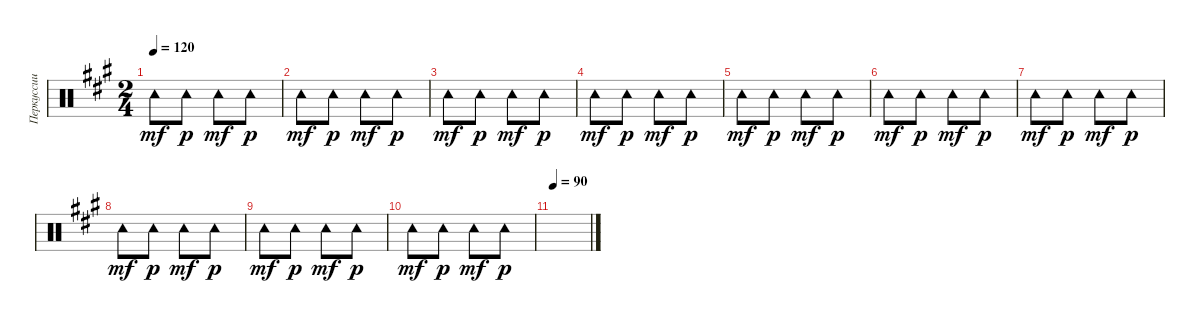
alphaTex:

\track ("Перкуссии" "Перкуссии") {instrument percussion}
\staff {score}
\articulation defaults
\ts (2 4)
\tempo 120
\clef neutral
\ks f#minor "Tambourine (hit)".8{dy mf} "Tambourine (hit)".8{dy p} "Tambourine (hit)".8{dy mf} "Tambourine (hit)".8{dy p}
|
"Tambourine (hit)".8{dy mf} "Tambourine (hit)".8{dy p} "Tambourine (hit)".8{dy mf} "Tambourine (hit)".8{dy p} |
"Tambourine (hit)".8{dy mf} "Tambourine (hit)".8{dy p} "Tambourine (hit)".8{dy mf} "Tambourine (hit)".8{dy p} |
"Tambourine (hit)".8{dy mf} "Tambourine (hit)".8{dy p} "Tambourine (hit)".8{dy mf} "Tambourine (hit)".8{dy p} |
"Tambourine (hit)".8{dy mf} "Tambourine (hit)".8{dy p} "Tambourine (hit)".8{dy mf} "Tambourine (hit)".8{dy p} |
"Tambourine (hit)".8{dy mf} "Tambourine (hit)".8{dy p} "Tambourine (hit)".8{dy mf} "Tambourine (hit)".8{dy p} |
"Tambourine (hit)".8{dy mf} "Tambourine (hit)".8{dy p} "Tambourine (hit)".8{dy mf} "Tambourine (hit)".8{dy p} |
"Tambourine (hit)".8{dy mf} "Tambourine (hit)".8{dy p} "Tambourine (hit)".8{dy mf} "Tambourine (hit)".8{dy p} |
"Tambourine (hit)".8{dy mf} "Tambourine (hit)".8{dy p} "Tambourine (hit)".8{dy mf} "Tambourine (hit)".8{dy p} |
"Tambourine (hit)".8{dy mf} "Tambourine (hit)".8{dy p} "Tambourine (hit)".8{dy mf} "Tambourine (hit)".8{dy p} |
\tempo 90
